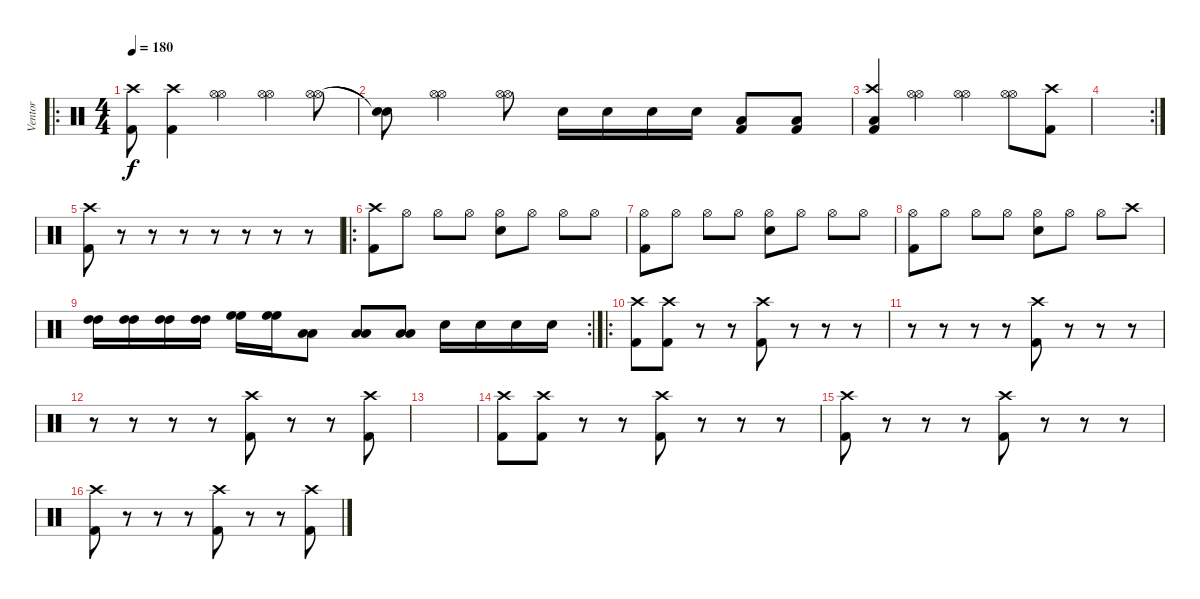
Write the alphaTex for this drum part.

\track ("Ventor" "Ventor") {instrument percussion}
\staff {score}
\articulation defaults
\ro
\ts (4 4)
\tempo 180
\clef neutral
\ks c
("Kick (hit) 2" "Crash high (hit)").8{dy f} ("Kick (hit) 2" "Crash high (hit)").4 ("Hi-Hat (open)" "Hi-Hat (open)").4 ("Hi-Hat (open)" "Hi-Hat (open)").4 ("Hi-Hat (open)" "Hi-Hat (open)").8 |
("Snare (hit)"{t} "Snare (hit)"{t}).8 ("Hi-Hat (open)" "Hi-Hat (open)").4 ("Hi-Hat (open)" "Hi-Hat (open)").8 "Snare (hit) 2".16 "Snare (hit) 2".16 "Snare (hit) 2".16 "Snare (hit) 2".16 ("Kick (hit) 2" "Low Floor Tom (hit)").8 ("Kick (hit) 2" "Low Floor Tom (hit)").8 |
("Kick (hit) 2" "Low Floor Tom (hit)" "Crash high (hit)").4 ("Hi-Hat (open)" "Hi-Hat (open)").4 ("Hi-Hat (open)" "Hi-Hat (open)").4 ("Hi-Hat (open)" "Hi-Hat (open)").8 ("Kick (hit) 2" "Crash high (hit)").8 |
\rc 2
|
("Kick (hit) 2" "Crash high (hit)").8 r.8 r.8 r.8 r.8 r.8 r.8 r.8 |
\ro
("Kick (hit) 2" "Crash high (hit)").8 "Hi-Hat (open)".8 "Hi-Hat (open)".8 "Hi-Hat (open)".8 ("Snare (hit) 2" "Hi-Hat (open)").8 "Hi-Hat (open)".8 "Hi-Hat (open)".8 "Hi-Hat (open)".8 |
("Kick (hit) 2" "Hi-Hat (open)").8 "Hi-Hat (open)".8 "Hi-Hat (open)".8 "Hi-Hat (open)".8 ("Snare (hit) 2" "Hi-Hat (open)").8 "Hi-Hat (open)".8 "Hi-Hat (open)".8 "Hi-Hat (open)".8 |
("Kick (hit) 2" "Hi-Hat (open)").8 "Hi-Hat (open)".8 "Hi-Hat (open)".8 "Hi-Hat (open)".8 ("Snare (hit) 2" "Hi-Hat (open)").8 "Hi-Hat (open)".8 "Hi-Hat (open)".8 "Crash high (hit)".8 |
\rc 2
("High Tom (hit)" "High Tom (hit)").16 ("High Tom (hit)" "High Tom (hit)").16 ("High Tom (hit)" "High Tom (hit)").16 ("High Tom (hit)" "High Tom (hit)").16 ("High Floor Tom (hit)" "High Floor Tom (hit)").16 ("High Floor Tom (hit)" "High Floor Tom (hit)").16 ("Low Floor Tom (hit)" "Low Floor Tom (hit)").8 ("Low Tom (hit)" "Low Tom (hit)").8 ("Low Tom (hit)" "Low Tom (hit)").8 "Snare (hit) 2".16 "Snare (hit) 2".16 "Snare (hit) 2".16 "Snare (hit) 2".16 |
\ro
("Kick (hit) 2" "Crash high (hit)").8 ("Kick (hit) 2" "Crash high (hit)").8 r.8 r.8 ("Kick (hit) 2" "Crash high (hit)").8 r.8 r.8 r.8 |
r.8 r.8 r.8 r.8 ("Kick (hit) 2" "Crash high (hit)").8 r.8 r.8 r.8 |
r.8 r.8 r.8 r.8 ("Kick (hit) 2" "Crash high (hit)").8 r.8 r.8 ("Kick (hit) 2" "Crash high (hit)").8 |
|
("Kick (hit) 2" "Crash high (hit)").8 ("Kick (hit) 2" "Crash high (hit)").8 r.8 r.8 ("Kick (hit) 2" "Crash high (hit)").8 r.8 r.8 r.8 |
("Kick (hit) 2" "Crash high (hit)").8 r.8 r.8 r.8 ("Kick (hit) 2" "Crash high (hit)").8 r.8 r.8 r.8 |
("Kick (hit) 2" "Crash high (hit)").8 r.8 r.8 r.8 ("Kick (hit) 2" "Crash high (hit)").8 r.8 r.8 ("Kick (hit) 2" "Crash high (hit)").8
